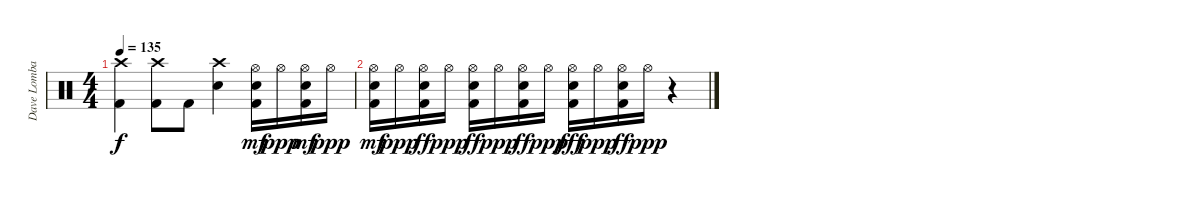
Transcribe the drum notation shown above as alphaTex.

\track ("Dave Lombardo - Drums" "Dave Lomba") {instrument percussion}
\staff {score}
\articulation defaults
\ts (4 4)
\tempo 135
\clef neutral
\ks c
("Crash high (hit)" "Kick (hit) 2").4{dy f} ("Crash high (hit)" "Kick (hit) 2").8 "Kick (hit) 2".8 ("Crash high (hit)" "Electric Snare (hit)").4 ("Hi-Hat (open)" "Electric Snare (hit)" "Kick (hit) 2").16{dy mf} "Hi-Hat (open)".16{dy ppp} ("Hi-Hat (open)" "Electric Snare (hit)" "Kick (hit) 2").16{dy mf} "Hi-Hat (open)".16{dy ppp} |
("Hi-Hat (open)" "Electric Snare (hit)" "Kick (hit) 2").16{dy mf} "Hi-Hat (open)".16{dy ppp} ("Hi-Hat (open)" "Electric Snare (hit)" "Kick (hit) 2").16{dy ff} "Hi-Hat (open)".16{dy ppp} ("Hi-Hat (open)" "Electric Snare (hit)" "Kick (hit) 2").16{dy ff} "Hi-Hat (open)".16{dy ppp} ("Hi-Hat (open)" "Electric Snare (hit)" "Kick (hit) 2").16{dy ff} "Hi-Hat (open)".16{dy ppp} ("Hi-Hat (open)" "Electric Snare (hit)" "Kick (hit) 2").16{dy fff} "Hi-Hat (open)".16{dy ppp} ("Hi-Hat (open)" "Electric Snare (hit)" "Kick (hit) 2").16{dy ff} "Hi-Hat (open)".16{dy ppp} r.4
